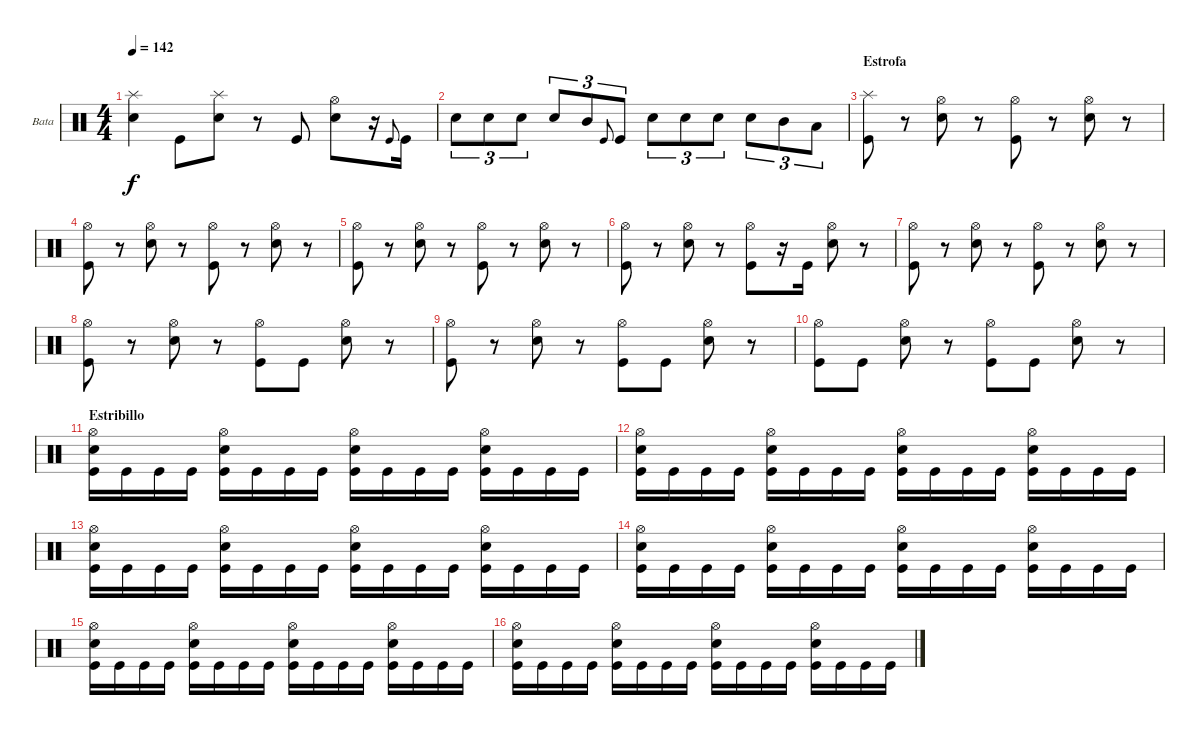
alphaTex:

\bracketExtendMode groupsimilarinstruments
\firstSystemTrackNameOrientation horizontal
\otherSystemsTrackNameOrientation horizontal
\track ("Bateria" "Bata") {instrument percussion}
\staff {score}
\articulation defaults
\ts (4 4)
\tempo 142
\clef neutral
\ks c
("Snare (hit) 2" "Splash (hit)").4{dy f} "Kick (hit)".8 ("Snare (hit) 2" "Splash (hit)").8 r.8 "Kick (hit)".8 ("Snare (hit) 2" "Hi-Hat (open)").8 r.16 "Kick (hit)".8{gr onbeat} "Kick (hit)".16 |
"Snare (hit) 2".8{tu (3 2)} "Snare (hit) 2".8{tu (3 2)} "Snare (hit) 2".8{tu (3 2)} "Snare (hit) 2".8{tu (3 2)} "Mid Tom (hit)".8{tu (3 2)} "Kick (hit)".8{tu (3 2) gr onbeat} "Kick (hit)".8{tu (3 2)} "Snare (hit) 2".8{tu (3 2)} "Snare (hit) 2".8{tu (3 2)} "Snare (hit) 2".8{tu (3 2)} "Snare (hit) 2".8{tu (3 2)} "Mid Tom (hit)".8{tu (3 2)} "Low Tom (hit)".8{tu (3 2)} |
\section ("" "Estrofa")
("Kick (hit)" "Splash (hit)").8 r.8 ("Hi-Hat (open)" "Snare (hit) 2").8 r.8 ("Hi-Hat (open)" "Kick (hit)").8 r.8 ("Hi-Hat (open)" "Snare (hit) 2").8 r.8 |
("Kick (hit)" "Hi-Hat (open)").8 r.8 ("Hi-Hat (open)" "Snare (hit) 2").8 r.8 ("Hi-Hat (open)" "Kick (hit)").8 r.8 ("Hi-Hat (open)" "Snare (hit) 2").8 r.8 |
("Kick (hit)" "Hi-Hat (open)").8 r.8 ("Hi-Hat (open)" "Snare (hit) 2").8 r.8 ("Hi-Hat (open)" "Kick (hit)").8 r.8 ("Hi-Hat (open)" "Snare (hit) 2").8 r.8 |
("Kick (hit)" "Hi-Hat (open)").8 r.8 ("Hi-Hat (open)" "Snare (hit) 2").8 r.8 ("Hi-Hat (open)" "Kick (hit)").8 r.16 "Kick (hit)".16 ("Hi-Hat (open)" "Snare (hit) 2").8 r.8 |
("Kick (hit)" "Hi-Hat (open)").8 r.8 ("Hi-Hat (open)" "Snare (hit) 2").8 r.8 ("Hi-Hat (open)" "Kick (hit)").8 r.8 ("Hi-Hat (open)" "Snare (hit) 2").8 r.8 |
("Kick (hit)" "Hi-Hat (open)").8 r.8 ("Hi-Hat (open)" "Snare (hit) 2").8 r.8 ("Hi-Hat (open)" "Kick (hit)").8 "Kick (hit)".8 ("Hi-Hat (open)" "Snare (hit) 2").8 r.8 |
("Kick (hit)" "Hi-Hat (open)").8 r.8 ("Hi-Hat (open)" "Snare (hit) 2").8 r.8 ("Hi-Hat (open)" "Kick (hit)").8 "Kick (hit)".8 ("Hi-Hat (open)" "Snare (hit) 2").8 r.8 |
("Kick (hit)" "Hi-Hat (open)").8 "Kick (hit)".8 ("Hi-Hat (open)" "Snare (hit) 2").8 r.8 ("Hi-Hat (open)" "Kick (hit)").8 "Kick (hit)".8 ("Hi-Hat (open)" "Snare (hit) 2").8 r.8 |
\section ("" "Estribillo")
("Kick (hit)" "Snare (hit) 2" "Hi-Hat (open)").16 "Kick (hit)".16 "Kick (hit)".16 "Kick (hit)".16 ("Kick (hit)" "Snare (hit) 2" "Hi-Hat (open)").16 "Kick (hit)".16 "Kick (hit)".16 "Kick (hit)".16 ("Kick (hit)" "Snare (hit) 2" "Hi-Hat (open)").16 "Kick (hit)".16 "Kick (hit)".16 "Kick (hit)".16 ("Kick (hit)" "Snare (hit) 2" "Hi-Hat (open)").16 "Kick (hit)".16 "Kick (hit)".16 "Kick (hit)".16 |
("Kick (hit)" "Snare (hit) 2" "Hi-Hat (open)").16 "Kick (hit)".16 "Kick (hit)".16 "Kick (hit)".16 ("Kick (hit)" "Snare (hit) 2" "Hi-Hat (open)").16 "Kick (hit)".16 "Kick (hit)".16 "Kick (hit)".16 ("Kick (hit)" "Snare (hit) 2" "Hi-Hat (open)").16 "Kick (hit)".16 "Kick (hit)".16 "Kick (hit)".16 ("Kick (hit)" "Snare (hit) 2" "Hi-Hat (open)").16 "Kick (hit)".16 "Kick (hit)".16 "Kick (hit)".16 |
("Kick (hit)" "Snare (hit) 2" "Hi-Hat (open)").16 "Kick (hit)".16 "Kick (hit)".16 "Kick (hit)".16 ("Kick (hit)" "Snare (hit) 2" "Hi-Hat (open)").16 "Kick (hit)".16 "Kick (hit)".16 "Kick (hit)".16 ("Kick (hit)" "Snare (hit) 2" "Hi-Hat (open)").16 "Kick (hit)".16 "Kick (hit)".16 "Kick (hit)".16 ("Kick (hit)" "Snare (hit) 2" "Hi-Hat (open)").16 "Kick (hit)".16 "Kick (hit)".16 "Kick (hit)".16 |
("Kick (hit)" "Snare (hit) 2" "Hi-Hat (open)").16 "Kick (hit)".16 "Kick (hit)".16 "Kick (hit)".16 ("Kick (hit)" "Snare (hit) 2" "Hi-Hat (open)").16 "Kick (hit)".16 "Kick (hit)".16 "Kick (hit)".16 ("Kick (hit)" "Snare (hit) 2" "Hi-Hat (open)").16 "Kick (hit)".16 "Kick (hit)".16 "Kick (hit)".16 ("Kick (hit)" "Snare (hit) 2" "Hi-Hat (open)").16 "Kick (hit)".16 "Kick (hit)".16 "Kick (hit)".16 |
("Kick (hit)" "Snare (hit) 2" "Hi-Hat (open)").16 "Kick (hit)".16 "Kick (hit)".16 "Kick (hit)".16 ("Kick (hit)" "Snare (hit) 2" "Hi-Hat (open)").16 "Kick (hit)".16 "Kick (hit)".16 "Kick (hit)".16 ("Kick (hit)" "Snare (hit) 2" "Hi-Hat (open)").16 "Kick (hit)".16 "Kick (hit)".16 "Kick (hit)".16 ("Kick (hit)" "Snare (hit) 2" "Hi-Hat (open)").16 "Kick (hit)".16 "Kick (hit)".16 "Kick (hit)".16 |
("Kick (hit)" "Snare (hit) 2" "Hi-Hat (open)").16 "Kick (hit)".16 "Kick (hit)".16 "Kick (hit)".16 ("Kick (hit)" "Snare (hit) 2" "Hi-Hat (open)").16 "Kick (hit)".16 "Kick (hit)".16 "Kick (hit)".16 ("Kick (hit)" "Snare (hit) 2" "Hi-Hat (open)").16 "Kick (hit)".16 "Kick (hit)".16 "Kick (hit)".16 ("Kick (hit)" "Snare (hit) 2" "Hi-Hat (open)").16 "Kick (hit)".16 "Kick (hit)".16 "Kick (hit)".16
